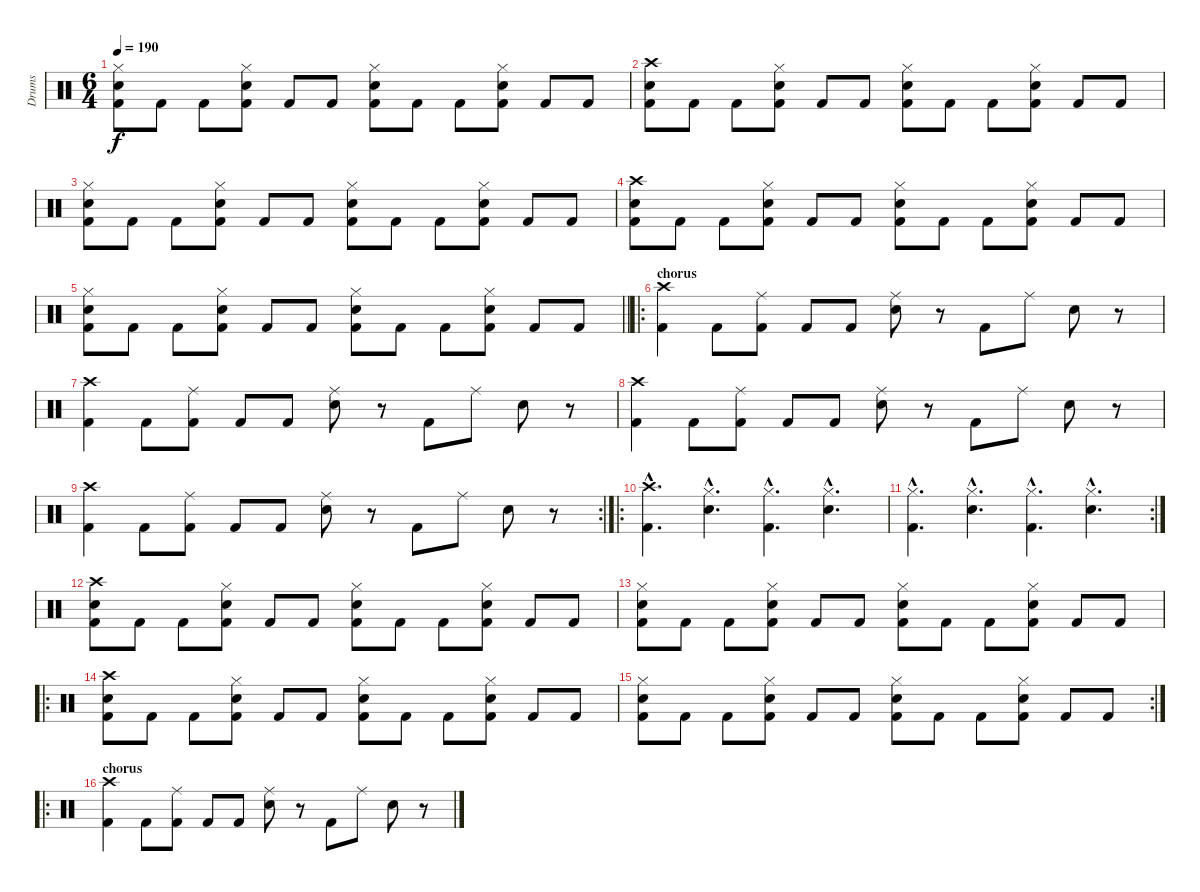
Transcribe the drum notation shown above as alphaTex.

\track ("Drums" "Drums") {instrument percussion}
\staff {score}
\articulation defaults
\ts (6 4)
\tempo 190
\clef neutral
\ks c
("Hi-Hat (closed)" "Snare (hit) 2" "Kick (hit) 2").8{dy f} "Kick (hit) 2".8 "Kick (hit) 2".8 ("Hi-Hat (closed)" "Snare (hit) 2" "Kick (hit) 2").8 "Kick (hit) 2".8 "Kick (hit) 2".8 ("Hi-Hat (closed)" "Snare (hit) 2" "Kick (hit) 2").8 "Kick (hit) 2".8 "Kick (hit) 2".8 ("Hi-Hat (closed)" "Snare (hit) 2" "Kick (hit) 2").8 "Kick (hit) 2".8 "Kick (hit) 2".8 |
("Crash high (hit)" "Snare (hit) 2" "Kick (hit) 2").8 "Kick (hit) 2".8 "Kick (hit) 2".8 ("Hi-Hat (closed)" "Snare (hit) 2" "Kick (hit) 2").8 "Kick (hit) 2".8 "Kick (hit) 2".8 ("Hi-Hat (closed)" "Snare (hit) 2" "Kick (hit) 2").8 "Kick (hit) 2".8 "Kick (hit) 2".8 ("Hi-Hat (closed)" "Snare (hit) 2" "Kick (hit) 2").8 "Kick (hit) 2".8 "Kick (hit) 2".8 |
("Hi-Hat (closed)" "Snare (hit) 2" "Kick (hit) 2").8 "Kick (hit) 2".8 "Kick (hit) 2".8 ("Hi-Hat (closed)" "Snare (hit) 2" "Kick (hit) 2").8 "Kick (hit) 2".8 "Kick (hit) 2".8 ("Hi-Hat (closed)" "Snare (hit) 2" "Kick (hit) 2").8 "Kick (hit) 2".8 "Kick (hit) 2".8 ("Hi-Hat (closed)" "Snare (hit) 2" "Kick (hit) 2").8 "Kick (hit) 2".8 "Kick (hit) 2".8 |
("Crash high (hit)" "Snare (hit) 2" "Kick (hit) 2").8 "Kick (hit) 2".8 "Kick (hit) 2".8 ("Hi-Hat (closed)" "Snare (hit) 2" "Kick (hit) 2").8 "Kick (hit) 2".8 "Kick (hit) 2".8 ("Hi-Hat (closed)" "Snare (hit) 2" "Kick (hit) 2").8 "Kick (hit) 2".8 "Kick (hit) 2".8 ("Hi-Hat (closed)" "Snare (hit) 2" "Kick (hit) 2").8 "Kick (hit) 2".8 "Kick (hit) 2".8 |
\barLineRight lightlight
("Hi-Hat (closed)" "Snare (hit) 2" "Kick (hit) 2").8 "Kick (hit) 2".8 "Kick (hit) 2".8 ("Hi-Hat (closed)" "Snare (hit) 2" "Kick (hit) 2").8 "Kick (hit) 2".8 "Kick (hit) 2".8 ("Hi-Hat (closed)" "Snare (hit) 2" "Kick (hit) 2").8 "Kick (hit) 2".8 "Kick (hit) 2".8 ("Hi-Hat (closed)" "Snare (hit) 2" "Kick (hit) 2").8 "Kick (hit) 2".8 "Kick (hit) 2".8 |
\ro
\section ("" "chorus")
("Crash high (hit)" "Kick (hit) 2").4 "Kick (hit) 2".8 ("Ride (middle)" "Kick (hit) 2").8 "Kick (hit) 2".8 "Kick (hit) 2".8 ("Ride (middle)" "Snare (hit) 2").8 r.8 "Kick (hit) 2".8 "Ride (middle)".8 "Snare (hit) 2".8 r.8 |
("Crash high (hit)" "Kick (hit) 2").4 "Kick (hit) 2".8 ("Ride (middle)" "Kick (hit) 2").8 "Kick (hit) 2".8 "Kick (hit) 2".8 ("Ride (middle)" "Snare (hit) 2").8 r.8 "Kick (hit) 2".8 "Ride (middle)".8 "Snare (hit) 2".8 r.8 |
("Crash high (hit)" "Kick (hit) 2").4 "Kick (hit) 2".8 ("Ride (middle)" "Kick (hit) 2").8 "Kick (hit) 2".8 "Kick (hit) 2".8 ("Ride (middle)" "Snare (hit) 2").8 r.8 "Kick (hit) 2".8 "Ride (middle)".8 "Snare (hit) 2".8 r.8 |
\rc 2
("Crash high (hit)" "Kick (hit) 2").4 "Kick (hit) 2".8 ("Ride (middle)" "Kick (hit) 2").8 "Kick (hit) 2".8 "Kick (hit) 2".8 ("Ride (middle)" "Snare (hit) 2").8 r.8 "Kick (hit) 2".8 "Ride (middle)".8 "Snare (hit) 2".8 r.8 |
\ro
("Crash high (hit)"{hac} "Kick (hit) 2"{hac}).4{d} ("Hi-Hat (closed)"{hac} "Snare (hit) 2"{hac}).4{d} ("Hi-Hat (closed)"{hac} "Kick (hit) 2"{hac}).4{d} ("Hi-Hat (closed)"{hac} "Snare (hit) 2"{hac}).4{d} |
\rc 2
("Hi-Hat (closed)"{hac} "Kick (hit) 2"{hac}).4{d} ("Hi-Hat (closed)"{hac} "Snare (hit) 2"{hac}).4{d} ("Hi-Hat (closed)"{hac} "Kick (hit) 2"{hac}).4{d} ("Hi-Hat (closed)"{hac} "Snare (hit) 2"{hac}).4{d} |
("Crash high (hit)" "Snare (hit) 2" "Kick (hit) 2").8 "Kick (hit) 2".8 "Kick (hit) 2".8 ("Hi-Hat (closed)" "Snare (hit) 2" "Kick (hit) 2").8 "Kick (hit) 2".8 "Kick (hit) 2".8 ("Hi-Hat (closed)" "Snare (hit) 2" "Kick (hit) 2").8 "Kick (hit) 2".8 "Kick (hit) 2".8 ("Hi-Hat (closed)" "Snare (hit) 2" "Kick (hit) 2").8 "Kick (hit) 2".8 "Kick (hit) 2".8 |
("Hi-Hat (closed)" "Snare (hit) 2" "Kick (hit) 2").8 "Kick (hit) 2".8 "Kick (hit) 2".8 ("Hi-Hat (closed)" "Snare (hit) 2" "Kick (hit) 2").8 "Kick (hit) 2".8 "Kick (hit) 2".8 ("Hi-Hat (closed)" "Snare (hit) 2" "Kick (hit) 2").8 "Kick (hit) 2".8 "Kick (hit) 2".8 ("Hi-Hat (closed)" "Snare (hit) 2" "Kick (hit) 2").8 "Kick (hit) 2".8 "Kick (hit) 2".8 |
\ro
("Crash high (hit)" "Snare (hit) 2" "Kick (hit) 2").8 "Kick (hit) 2".8 "Kick (hit) 2".8 ("Hi-Hat (closed)" "Snare (hit) 2" "Kick (hit) 2").8 "Kick (hit) 2".8 "Kick (hit) 2".8 ("Hi-Hat (closed)" "Snare (hit) 2" "Kick (hit) 2").8 "Kick (hit) 2".8 "Kick (hit) 2".8 ("Hi-Hat (closed)" "Snare (hit) 2" "Kick (hit) 2").8 "Kick (hit) 2".8 "Kick (hit) 2".8 |
\rc 2
("Hi-Hat (closed)" "Snare (hit) 2" "Kick (hit) 2").8 "Kick (hit) 2".8 "Kick (hit) 2".8 ("Hi-Hat (closed)" "Snare (hit) 2" "Kick (hit) 2").8 "Kick (hit) 2".8 "Kick (hit) 2".8 ("Hi-Hat (closed)" "Snare (hit) 2" "Kick (hit) 2").8 "Kick (hit) 2".8 "Kick (hit) 2".8 ("Hi-Hat (closed)" "Snare (hit) 2" "Kick (hit) 2").8 "Kick (hit) 2".8 "Kick (hit) 2".8 |
\ro
\section ("" "chorus")
("Crash high (hit)" "Kick (hit) 2").4 "Kick (hit) 2".8 ("Ride (middle)" "Kick (hit) 2").8 "Kick (hit) 2".8 "Kick (hit) 2".8 ("Ride (middle)" "Snare (hit) 2").8 r.8 "Kick (hit) 2".8 "Ride (middle)".8 "Snare (hit) 2".8 r.8
